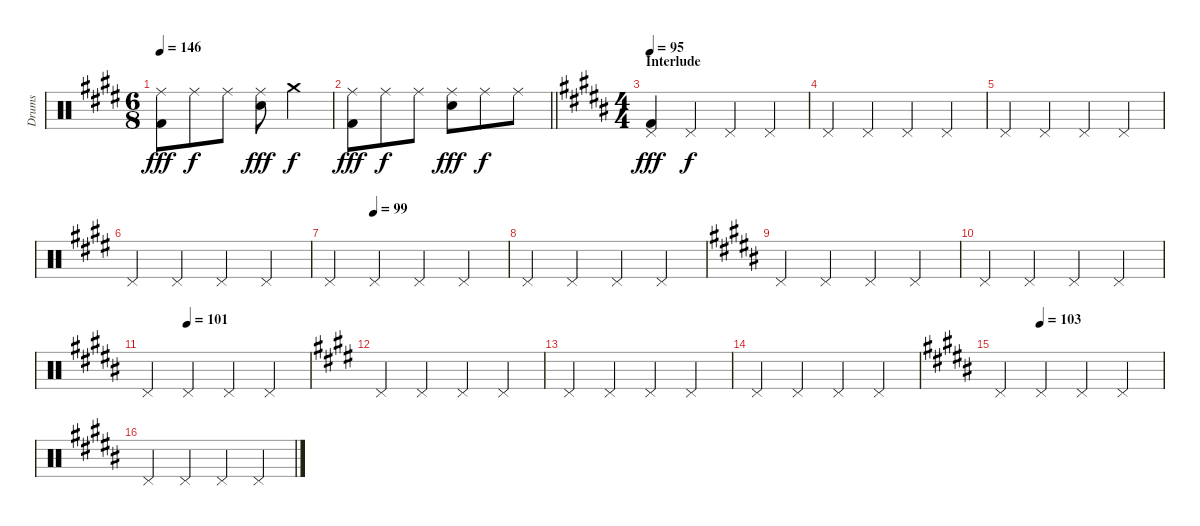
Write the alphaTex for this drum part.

\track ("Drums" "Drums") {instrument percussion}
\staff {score}
\articulation defaults
\ts (6 8)
\tempo 146
\clef neutral
\ks e
("Ride (middle)" "Kick (hit) 2").8{dy fff} "Ride (middle)".8{dy f} "Ride (middle)".8 ("Ride (middle)" "Snare (hit) 2").8{dy fff} "Crash medium (hit)".4{dy f} |
\barLineRight lightlight
("Ride (middle)" "Kick (hit) 2").8{dy fff} "Ride (middle)".8{dy f} "Ride (middle)".8 ("Ride (middle)" "Snare (hit) 2").8{dy fff} "Ride (middle)".8{dy f} "Ride (middle)".8 |
\ts (4 4)
\section ("" "Interlude")
\tempo 95
\ks b
("Pedal Hi-Hat (hit)" "Kick (hit) 2").4{dy fff} "Pedal Hi-Hat (hit)".4{dy f} "Pedal Hi-Hat (hit)".4 "Pedal Hi-Hat (hit)".4 |
"Pedal Hi-Hat (hit)".4 "Pedal Hi-Hat (hit)".4 "Pedal Hi-Hat (hit)".4 "Pedal Hi-Hat (hit)".4 |
"Pedal Hi-Hat (hit)".4 "Pedal Hi-Hat (hit)".4 "Pedal Hi-Hat (hit)".4 "Pedal Hi-Hat (hit)".4 |
\ks e "Pedal Hi-Hat (hit)".4 "Pedal Hi-Hat (hit)".4 "Pedal Hi-Hat (hit)".4 "Pedal Hi-Hat (hit)".4
|
\tempo (99 0.25)
"Pedal Hi-Hat (hit)".4 "Pedal Hi-Hat (hit)".4 "Pedal Hi-Hat (hit)".4 "Pedal Hi-Hat (hit)".4 |
"Pedal Hi-Hat (hit)".4 "Pedal Hi-Hat (hit)".4 "Pedal Hi-Hat (hit)".4 "Pedal Hi-Hat (hit)".4 |
\ks b "Pedal Hi-Hat (hit)".4 "Pedal Hi-Hat (hit)".4 "Pedal Hi-Hat (hit)".4 "Pedal Hi-Hat (hit)".4
|
"Pedal Hi-Hat (hit)".4 "Pedal Hi-Hat (hit)".4 "Pedal Hi-Hat (hit)".4 "Pedal Hi-Hat (hit)".4 |
\tempo (101 0.25)
"Pedal Hi-Hat (hit)".4 "Pedal Hi-Hat (hit)".4 "Pedal Hi-Hat (hit)".4 "Pedal Hi-Hat (hit)".4 |
\ks e "Pedal Hi-Hat (hit)".4 "Pedal Hi-Hat (hit)".4 "Pedal Hi-Hat (hit)".4 "Pedal Hi-Hat (hit)".4
|
"Pedal Hi-Hat (hit)".4 "Pedal Hi-Hat (hit)".4 "Pedal Hi-Hat (hit)".4 "Pedal Hi-Hat (hit)".4 |
"Pedal Hi-Hat (hit)".4 "Pedal Hi-Hat (hit)".4 "Pedal Hi-Hat (hit)".4 "Pedal Hi-Hat (hit)".4 |
\tempo (103 0.25)
\ks b "Pedal Hi-Hat (hit)".4 "Pedal Hi-Hat (hit)".4 "Pedal Hi-Hat (hit)".4 "Pedal Hi-Hat (hit)".4
|
"Pedal Hi-Hat (hit)".4 "Pedal Hi-Hat (hit)".4 "Pedal Hi-Hat (hit)".4 "Pedal Hi-Hat (hit)".4
